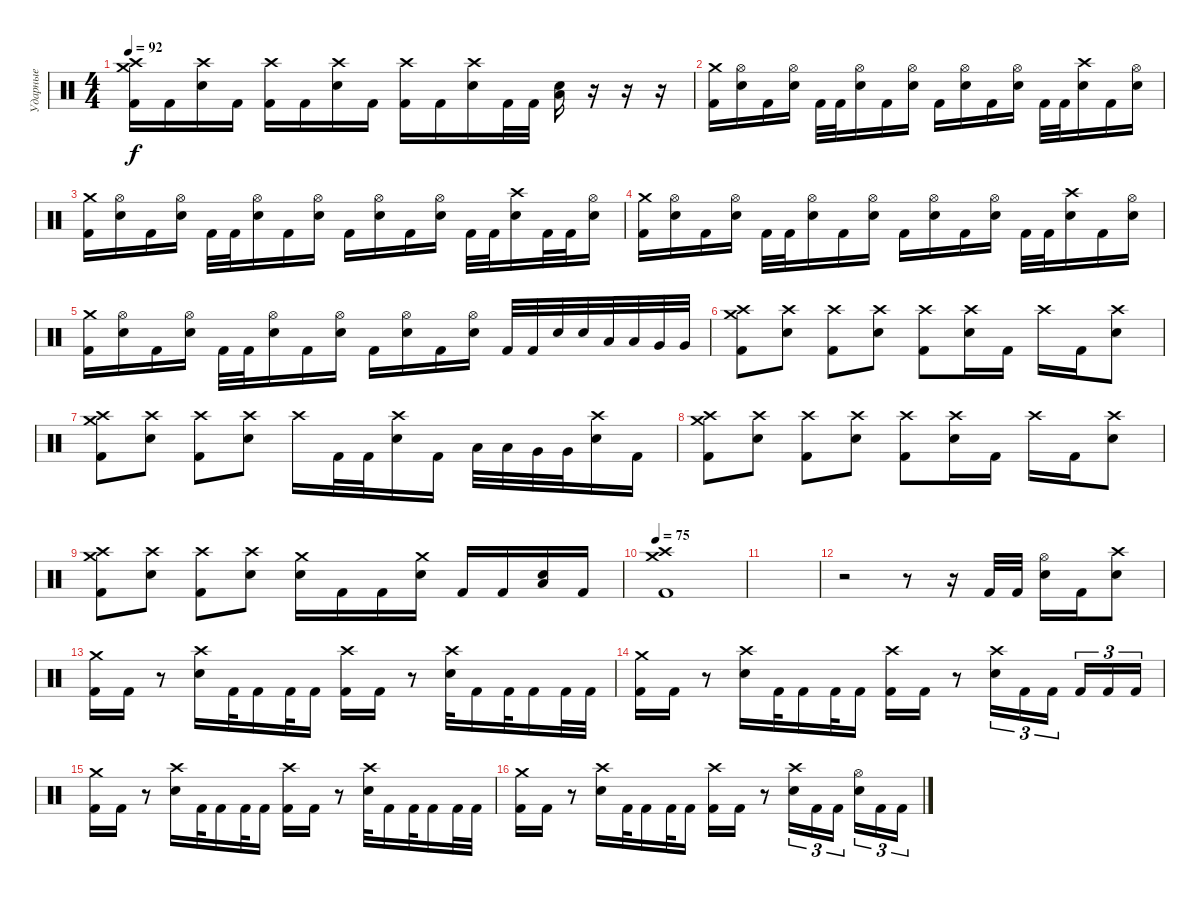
\track ("Ударные" "Ударные") {instrument percussion}
\staff {score}
\articulation defaults
\ts (4 4)
\tempo 92
\clef neutral
\ks c
("Crash medium (hit)" "Crash high (hit)" "Kick (hit) 2").16{dy f} "Kick (hit) 2".16 ("Crash high (hit)" "Electric Snare (hit)").16 "Kick (hit) 2".16 ("Crash high (hit)" "Kick (hit) 2").16 "Kick (hit) 2".16 ("Crash high (hit)" "Electric Snare (hit)").16 "Kick (hit) 2".16 ("Crash high (hit)" "Kick (hit) 2").16 "Kick (hit) 2".16 ("Crash high (hit)" "Electric Snare (hit)").16 "Kick (hit) 2".32 "Kick (hit) 2".32 ("Low Floor Tom (hit)" "Electric Snare (hit)").16 r.16 r.16 r.16 |
("Crash medium (hit)" "Kick (hit) 2").16 ("Hi-Hat (open)" "Electric Snare (hit)").16 "Kick (hit) 2".16 ("Hi-Hat (open)" "Electric Snare (hit)").16 "Kick (hit) 2".32 "Kick (hit) 2".32 ("Hi-Hat (open)" "Electric Snare (hit)").16 "Kick (hit) 2".16 ("Hi-Hat (open)" "Electric Snare (hit)").16 "Kick (hit) 2".16 ("Hi-Hat (open)" "Electric Snare (hit)").16 "Kick (hit) 2".16 ("Hi-Hat (open)" "Electric Snare (hit)").16 "Kick (hit) 2".32 "Kick (hit) 2".32 ("Crash high (hit)" "Electric Snare (hit)").16 "Kick (hit) 2".16 ("Hi-Hat (open)" "Electric Snare (hit)").16 |
("Crash medium (hit)" "Kick (hit) 2").16 ("Hi-Hat (open)" "Electric Snare (hit)").16 "Kick (hit) 2".16 ("Hi-Hat (open)" "Electric Snare (hit)").16 "Kick (hit) 2".32 "Kick (hit) 2".32 ("Hi-Hat (open)" "Electric Snare (hit)").16 "Kick (hit) 2".16 ("Hi-Hat (open)" "Electric Snare (hit)").16 "Kick (hit) 2".16 ("Hi-Hat (open)" "Electric Snare (hit)").16 "Kick (hit) 2".16 ("Hi-Hat (open)" "Electric Snare (hit)").16 "Kick (hit) 2".32 "Kick (hit) 2".32 ("Crash high (hit)" "Electric Snare (hit)").16 "Kick (hit) 2".32 "Kick (hit) 2".32 ("Hi-Hat (open)" "Electric Snare (hit)").16 |
("Crash medium (hit)" "Kick (hit) 2").16 ("Hi-Hat (open)" "Electric Snare (hit)").16 "Kick (hit) 2".16 ("Hi-Hat (open)" "Electric Snare (hit)").16 "Kick (hit) 2".32 "Kick (hit) 2".32 ("Hi-Hat (open)" "Electric Snare (hit)").16 "Kick (hit) 2".16 ("Hi-Hat (open)" "Electric Snare (hit)").16 "Kick (hit) 2".16 ("Hi-Hat (open)" "Electric Snare (hit)").16 "Kick (hit) 2".16 ("Hi-Hat (open)" "Electric Snare (hit)").16 "Kick (hit) 2".32 "Kick (hit) 2".32 ("Crash high (hit)" "Electric Snare (hit)").16 "Kick (hit) 2".16 ("Hi-Hat (open)" "Electric Snare (hit)").16 |
("Crash medium (hit)" "Kick (hit) 2").16 ("Hi-Hat (open)" "Electric Snare (hit)").16 "Kick (hit) 2".16 ("Hi-Hat (open)" "Electric Snare (hit)").16 "Kick (hit) 2".32 "Kick (hit) 2".32 ("Hi-Hat (open)" "Electric Snare (hit)").16 "Kick (hit) 2".16 ("Hi-Hat (open)" "Electric Snare (hit)").16 "Kick (hit) 2".16 ("Hi-Hat (open)" "Electric Snare (hit)").16 "Kick (hit) 2".16 ("Hi-Hat (open)" "Electric Snare (hit)").16 "Kick (hit) 2".32 "Kick (hit) 2".32 "Electric Snare (hit)".32 "Electric Snare (hit)".32 "Low Tom (hit)".32 "Low Tom (hit)".32 "Very Low Tom (hit)".32 "Very Low Tom (hit)".32 |
("Crash medium (hit)" "Crash high (hit)" "Kick (hit) 2").8 ("Crash high (hit)" "Electric Snare (hit)").8 ("Crash high (hit)" "Kick (hit) 2").8 ("Crash high (hit)" "Electric Snare (hit)").8 ("Crash high (hit)" "Kick (hit) 2").8 ("Crash high (hit)" "Electric Snare (hit)").16 "Kick (hit) 2".16 "Crash high (hit)".16 "Kick (hit) 2".16 ("Crash high (hit)" "Electric Snare (hit)").8 |
("Crash medium (hit)" "Crash high (hit)" "Kick (hit) 2").8 ("Crash high (hit)" "Electric Snare (hit)").8 ("Crash high (hit)" "Kick (hit) 2").8 ("Crash high (hit)" "Electric Snare (hit)").8 "Crash high (hit)".16 "Kick (hit) 2".32 "Kick (hit) 2".32 ("Crash high (hit)" "Electric Snare (hit)").16 "Kick (hit) 2".16 "Low Tom (hit)".32 "Low Tom (hit)".32 "Very Low Tom (hit)".32 "Very Low Tom (hit)".32 ("Crash high (hit)" "Electric Snare (hit)").16 "Kick (hit) 2".16 |
("Crash medium (hit)" "Crash high (hit)" "Kick (hit) 2").8 ("Crash high (hit)" "Electric Snare (hit)").8 ("Crash high (hit)" "Kick (hit) 2").8 ("Crash high (hit)" "Electric Snare (hit)").8 ("Crash high (hit)" "Kick (hit) 2").8 ("Crash high (hit)" "Electric Snare (hit)").16 "Kick (hit) 2".16 "Crash high (hit)".16 "Kick (hit) 2".16 ("Crash high (hit)" "Electric Snare (hit)").8 |
("Crash medium (hit)" "Crash high (hit)" "Kick (hit) 2").8 ("Crash high (hit)" "Electric Snare (hit)").8 ("Crash high (hit)" "Kick (hit) 2").8 ("Crash high (hit)" "Electric Snare (hit)").8 ("Crash medium (hit)" "Electric Snare (hit)").16 "Kick (hit) 2".16 "Kick (hit) 2".16 ("Crash medium (hit)" "Electric Snare (hit)").16 "Kick (hit) 2".16 "Kick (hit) 2".16 ("Electric Snare (hit)" "Low Floor Tom (hit)").16 "Kick (hit) 2".16 |
\tempo 75
("Crash medium (hit)" "Crash high (hit)" "Kick (hit) 2").1 |
|
r.2 r.8 r.16 "Kick (hit) 2".32 "Kick (hit) 2".32 ("Hi-Hat (open)" "Electric Snare (hit)").16 "Kick (hit) 2".16 ("Crash high (hit)" "Electric Snare (hit)").8 |
("Crash medium (hit)" "Kick (hit) 2").16 "Kick (hit) 2".16 r.8 ("Crash high (hit)" "Electric Snare (hit)").16 "Kick (hit) 2".32 "Kick (hit) 2".16 "Kick (hit) 2".32 "Kick (hit) 2".16 ("Crash high (hit)" "Kick (hit) 2").16 "Kick (hit) 2".16 r.8 ("Crash high (hit)" "Electric Snare (hit)").32 "Kick (hit) 2".16 "Kick (hit) 2".32 "Kick (hit) 2".16 "Kick (hit) 2".32 "Kick (hit) 2".32 |
("Crash medium (hit)" "Kick (hit) 2").16 "Kick (hit) 2".16 r.8 ("Crash high (hit)" "Electric Snare (hit)").16 "Kick (hit) 2".32 "Kick (hit) 2".16 "Kick (hit) 2".32 "Kick (hit) 2".16 ("Crash high (hit)" "Kick (hit) 2").16 "Kick (hit) 2".16 r.8 ("Crash high (hit)" "Electric Snare (hit)").16{tu (3 2)} "Kick (hit) 2".16{tu (3 2)} "Kick (hit) 2".16{tu (3 2)} "Kick (hit) 2".16{tu (3 2)} "Kick (hit) 2".16{tu (3 2)} "Kick (hit) 2".16{tu (3 2)} |
("Crash medium (hit)" "Kick (hit) 2").16 "Kick (hit) 2".16 r.8 ("Crash high (hit)" "Electric Snare (hit)").16 "Kick (hit) 2".32 "Kick (hit) 2".16 "Kick (hit) 2".32 "Kick (hit) 2".16 ("Crash high (hit)" "Kick (hit) 2").16 "Kick (hit) 2".16 r.8 ("Crash high (hit)" "Electric Snare (hit)").32 "Kick (hit) 2".16 "Kick (hit) 2".32 "Kick (hit) 2".16 "Kick (hit) 2".32 "Kick (hit) 2".32 |
("Crash medium (hit)" "Kick (hit) 2").16 "Kick (hit) 2".16 r.8 ("Crash high (hit)" "Electric Snare (hit)").16 "Kick (hit) 2".32 "Kick (hit) 2".16 "Kick (hit) 2".32 "Kick (hit) 2".16 ("Crash high (hit)" "Kick (hit) 2").16 "Kick (hit) 2".16 r.8 ("Crash high (hit)" "Electric Snare (hit)").16{tu (3 2)} "Kick (hit) 2".16{tu (3 2)} "Kick (hit) 2".16{tu (3 2)} ("Hi-Hat (open)" "Electric Snare (hit)").16{tu (3 2)} "Kick (hit) 2".16{tu (3 2)} "Kick (hit) 2".16{tu (3 2)}
